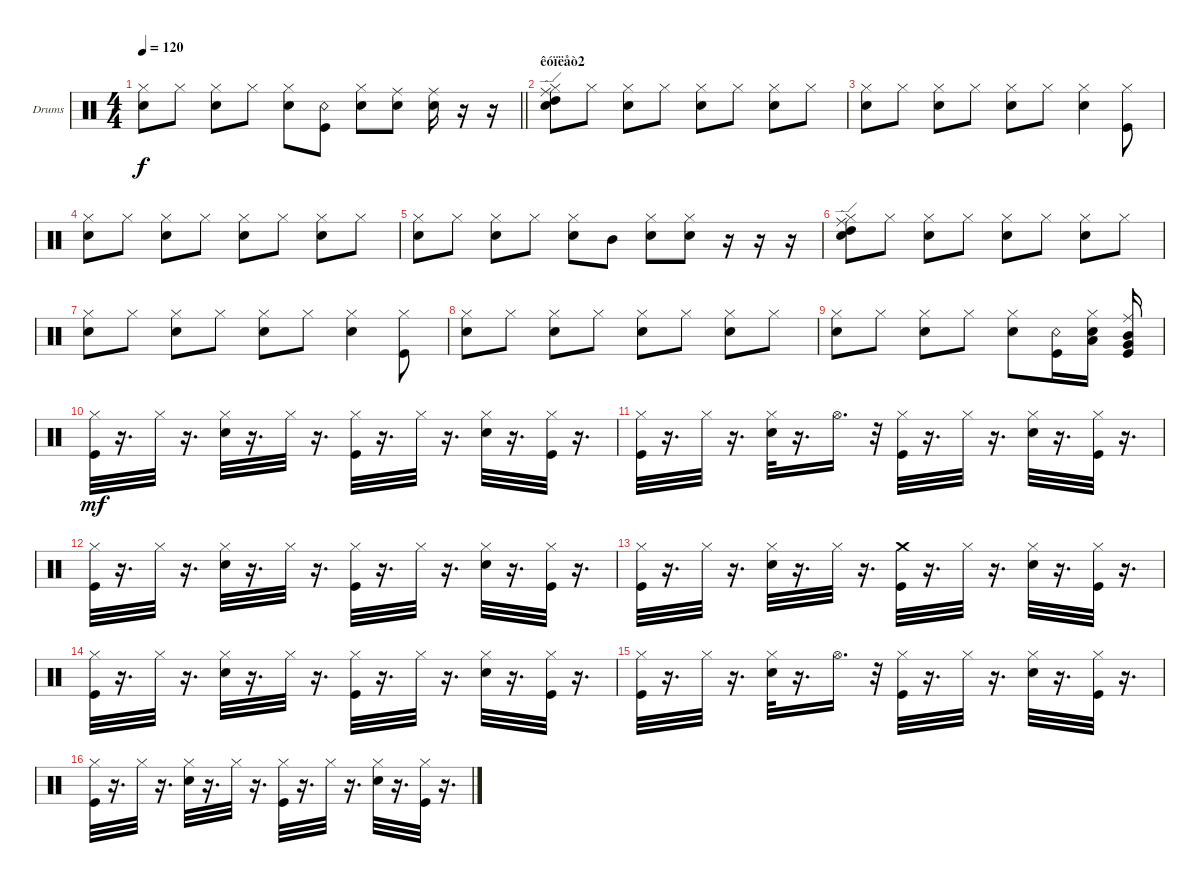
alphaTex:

\bracketExtendMode groupsimilarinstruments
\firstSystemTrackNameOrientation horizontal
\otherSystemsTrackNameOrientation horizontal
\track ("Drumkit" "Drums") {instrument percussion}
\staff {score}
\articulation defaults
\ts (4 4)
\tempo 120
\clef neutral
\barLineRight lightlight
\ks c
("Hi-Hat (closed)" "Snare (hit) 2").8{dy f} "Hi-Hat (closed)".8 ("Hi-Hat (closed)" "Snare (hit) 2").8 "Hi-Hat (closed)".8 ("Hi-Hat (closed)" "Snare (hit) 2").8 ("Snare (rim shot)" "Kick (hit)").8 ("Snare (hit) 2" "Hi-Hat (closed)").8 ("Snare (hit) 2" "Ride (middle)").8 ("Snare (hit) 2" "Ride (middle)").16 r.16 r.16 |
\section ("" "êóïëåò2")
("Hi-Hat (closed)" "Snare (hit) 2" "Ride (edge)" "High Tom (hit)").8 "Hi-Hat (closed)".8 ("Hi-Hat (closed)" "Snare (hit) 2").8 "Hi-Hat (closed)".8 ("Hi-Hat (closed)" "Snare (hit) 2").8 "Hi-Hat (closed)".8 ("Hi-Hat (closed)" "Snare (hit) 2").8 "Hi-Hat (closed)".8 |
("Hi-Hat (closed)" "Snare (hit) 2").8 "Hi-Hat (closed)".8 ("Hi-Hat (closed)" "Snare (hit) 2").8 "Hi-Hat (closed)".8 ("Hi-Hat (closed)" "Snare (hit) 2").8 "Hi-Hat (closed)".8 ("Hi-Hat (closed)" "Snare (hit) 2").4 ("Hi-Hat (closed)" "Kick (hit)").8 |
("Hi-Hat (closed)" "Snare (hit) 2").8 "Hi-Hat (closed)".8 ("Hi-Hat (closed)" "Snare (hit) 2").8 "Hi-Hat (closed)".8 ("Hi-Hat (closed)" "Snare (hit) 2").8 "Hi-Hat (closed)".8 ("Hi-Hat (closed)" "Snare (hit) 2").8 "Hi-Hat (closed)".8 |
("Hi-Hat (closed)" "Snare (hit) 2").8 "Hi-Hat (closed)".8 ("Hi-Hat (closed)" "Snare (hit) 2").8 "Hi-Hat (closed)".8 ("Hi-Hat (closed)" "Snare (hit) 2").8 "Mid Tom (hit)".8 ("Snare (hit) 2" "Hi-Hat (closed)").8 ("Hi-Hat (closed)" "Snare (hit) 2").8 r.16 r.16 r.16 |
("Hi-Hat (closed)" "Snare (hit) 2" "Ride (edge)" "High Tom (hit)").8 "Hi-Hat (closed)".8 ("Hi-Hat (closed)" "Snare (hit) 2").8 "Hi-Hat (closed)".8 ("Hi-Hat (closed)" "Snare (hit) 2").8 "Hi-Hat (closed)".8 ("Hi-Hat (closed)" "Snare (hit) 2").8 "Hi-Hat (closed)".8 |
("Hi-Hat (closed)" "Snare (hit) 2").8 "Hi-Hat (closed)".8 ("Hi-Hat (closed)" "Snare (hit) 2").8 "Hi-Hat (closed)".8 ("Hi-Hat (closed)" "Snare (hit) 2").8 "Hi-Hat (closed)".8 ("Hi-Hat (closed)" "Snare (hit) 2").4 ("Hi-Hat (closed)" "Kick (hit)").8 |
("Hi-Hat (closed)" "Snare (hit) 2").8 "Hi-Hat (closed)".8 ("Hi-Hat (closed)" "Snare (hit) 2").8 "Hi-Hat (closed)".8 ("Hi-Hat (closed)" "Snare (hit) 2").8 "Hi-Hat (closed)".8 ("Hi-Hat (closed)" "Snare (hit) 2").8 "Hi-Hat (closed)".8 |
("Hi-Hat (closed)" "Snare (hit) 2").8 "Hi-Hat (closed)".8 ("Hi-Hat (closed)" "Snare (hit) 2").8 "Hi-Hat (closed)".8 ("Hi-Hat (closed)" "Snare (hit) 2").8 ("Snare (rim shot)" "Kick (hit)").16 ("Hi-Hat (closed)" "Snare (hit) 2" "Low Tom (hit)").16 ("Very Low Tom (hit)" "Kick (hit)" "Mid Tom (hit)" "Ride (middle)").16 |
("Hi-Hat (closed)" "Kick (hit)").32{dy mf} r.16{d} "Hi-Hat (closed)".32 r.16{d} ("Hi-Hat (closed)" "Snare (hit) 2").32 r.16{d} "Hi-Hat (closed)".32 r.16{d} ("Hi-Hat (closed)" "Kick (hit)").32 r.16{d} "Hi-Hat (closed)".32 r.16{d} ("Hi-Hat (closed)" "Snare (hit) 2").32 r.16{d} ("Hi-Hat (closed)" "Kick (hit)").32 r.16{d} |
("Hi-Hat (closed)" "Kick (hit)").32 r.16{d} "Hi-Hat (closed)".32 r.16{d} ("Hi-Hat (closed)" "Snare (hit) 2").32 r.16{d} "Hi-Hat (open)".16{d} r.32 ("Hi-Hat (closed)" "Kick (hit)").32 r.16{d} "Hi-Hat (closed)".32 r.16{d} ("Hi-Hat (closed)" "Snare (hit) 2").32 r.16{d} ("Hi-Hat (closed)" "Kick (hit)").32 r.16{d} |
("Hi-Hat (closed)" "Kick (hit)").32 r.16{d} "Hi-Hat (closed)".32 r.16{d} ("Hi-Hat (closed)" "Snare (hit) 2").32 r.16{d} "Hi-Hat (closed)".32 r.16{d} ("Hi-Hat (closed)" "Kick (hit)").32 r.16{d} "Hi-Hat (closed)".32 r.16{d} ("Hi-Hat (closed)" "Snare (hit) 2").32 r.16{d} ("Hi-Hat (closed)" "Kick (hit)").32 r.16{d} |
("Hi-Hat (closed)" "Kick (hit)").32 r.16{d} "Hi-Hat (closed)".32 r.16{d} ("Hi-Hat (closed)" "Snare (hit) 2").32 r.16{d} "Hi-Hat (closed)".32 r.16{d} ("Crash medium (hit)" "Kick (hit)").32 r.16{d} "Hi-Hat (closed)".32 r.16{d} ("Hi-Hat (closed)" "Snare (hit) 2").32 r.16{d} ("Hi-Hat (closed)" "Kick (hit)").32 r.16{d} |
("Hi-Hat (closed)" "Kick (hit)").32 r.16{d} "Hi-Hat (closed)".32 r.16{d} ("Hi-Hat (closed)" "Snare (hit) 2").32 r.16{d} "Hi-Hat (closed)".32 r.16{d} ("Hi-Hat (closed)" "Kick (hit)").32 r.16{d} "Hi-Hat (closed)".32 r.16{d} ("Hi-Hat (closed)" "Snare (hit) 2").32 r.16{d} ("Hi-Hat (closed)" "Kick (hit)").32 r.16{d} |
("Hi-Hat (closed)" "Kick (hit)").32 r.16{d} "Hi-Hat (closed)".32 r.16{d} ("Hi-Hat (closed)" "Snare (hit) 2").32 r.16{d} "Hi-Hat (open)".16{d} r.32 ("Hi-Hat (closed)" "Kick (hit)").32 r.16{d} "Hi-Hat (closed)".32 r.16{d} ("Hi-Hat (closed)" "Snare (hit) 2").32 r.16{d} ("Hi-Hat (closed)" "Kick (hit)").32 r.16{d} |
("Hi-Hat (closed)" "Kick (hit)").32 r.16{d} "Hi-Hat (closed)".32 r.16{d} ("Hi-Hat (closed)" "Snare (hit) 2").32 r.16{d} "Hi-Hat (closed)".32 r.16{d} ("Hi-Hat (closed)" "Kick (hit)").32 r.16{d} "Hi-Hat (closed)".32 r.16{d} ("Hi-Hat (closed)" "Snare (hit) 2").32 r.16{d} ("Hi-Hat (closed)" "Kick (hit)").32 r.16{d}
